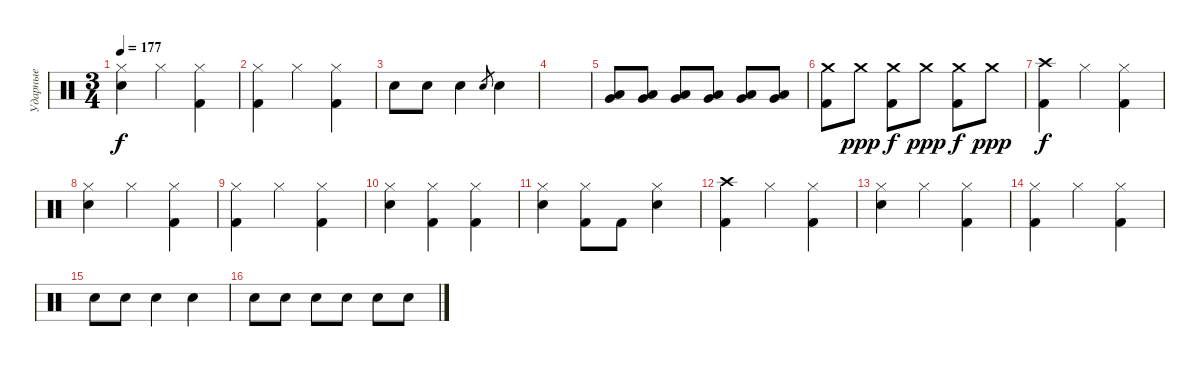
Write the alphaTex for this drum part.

\track ("Ударные" "Ударные") {instrument percussion}
\staff {score}
\articulation defaults
\ts (3 4)
\tempo 177
\clef neutral
\ks c
("Hi-Hat (closed)" "Snare (hit) 2").4{dy f} "Hi-Hat (closed)".4 ("Hi-Hat (closed)" "Kick (hit) 2").4 |
("Hi-Hat (closed)" "Kick (hit) 2").4 "Hi-Hat (closed)".4 ("Hi-Hat (closed)" "Kick (hit) 2").4 |
"Snare (hit) 2".8 "Snare (hit) 2".8 "Snare (hit) 2".4 "Snare (hit) 2".8{gr} "Snare (hit) 2".4 |
|
("Low Tom (hit)" "Very Low Tom (hit)").8 ("Low Tom (hit)" "Very Low Tom (hit)").8 ("Low Tom (hit)" "Very Low Tom (hit)").8 ("Low Tom (hit)" "Very Low Tom (hit)").8 ("Low Tom (hit)" "Very Low Tom (hit)").8 ("Low Tom (hit)" "Very Low Tom (hit)").8 |
("Crash medium (hit)" "Kick (hit) 2").8 "Crash medium (hit)".8{dy ppp} ("Crash medium (hit)" "Kick (hit) 2").8{dy f} "Crash medium (hit)".8{dy ppp} ("Crash medium (hit)" "Kick (hit) 2").8{dy f} "Crash medium (hit)".8{dy ppp} |
("Crash high (hit)" "Kick (hit) 2").4{dy f} "Hi-Hat (closed)".4 ("Hi-Hat (closed)" "Kick (hit) 2").4 |
("Hi-Hat (closed)" "Snare (hit) 2").4 "Hi-Hat (closed)".4 ("Hi-Hat (closed)" "Kick (hit) 2").4 |
("Hi-Hat (closed)" "Kick (hit) 2").4 "Hi-Hat (closed)".4 ("Hi-Hat (closed)" "Kick (hit) 2").4 |
("Hi-Hat (closed)" "Snare (hit) 2").4 ("Hi-Hat (closed)" "Kick (hit) 2").4 ("Hi-Hat (closed)" "Kick (hit) 2").4 |
("Hi-Hat (closed)" "Snare (hit) 2").4 ("Hi-Hat (closed)" "Kick (hit) 2").8 "Kick (hit) 2".8 ("Hi-Hat (closed)" "Snare (hit) 2").4 |
("Crash high (hit)" "Kick (hit) 2").4 "Hi-Hat (closed)".4 ("Hi-Hat (closed)" "Kick (hit) 2").4 |
("Hi-Hat (closed)" "Snare (hit) 2").4 "Hi-Hat (closed)".4 ("Hi-Hat (closed)" "Kick (hit) 2").4 |
("Hi-Hat (closed)" "Kick (hit) 2").4 "Hi-Hat (closed)".4 ("Hi-Hat (closed)" "Kick (hit) 2").4 |
"Snare (hit) 2".8 "Snare (hit) 2".8 "Snare (hit) 2".4 "Snare (hit) 2".4 |
"Snare (hit) 2".8 "Snare (hit) 2".8 "Snare (hit) 2".8 "Snare (hit) 2".8 "Snare (hit) 2".8 "Snare (hit) 2".8
